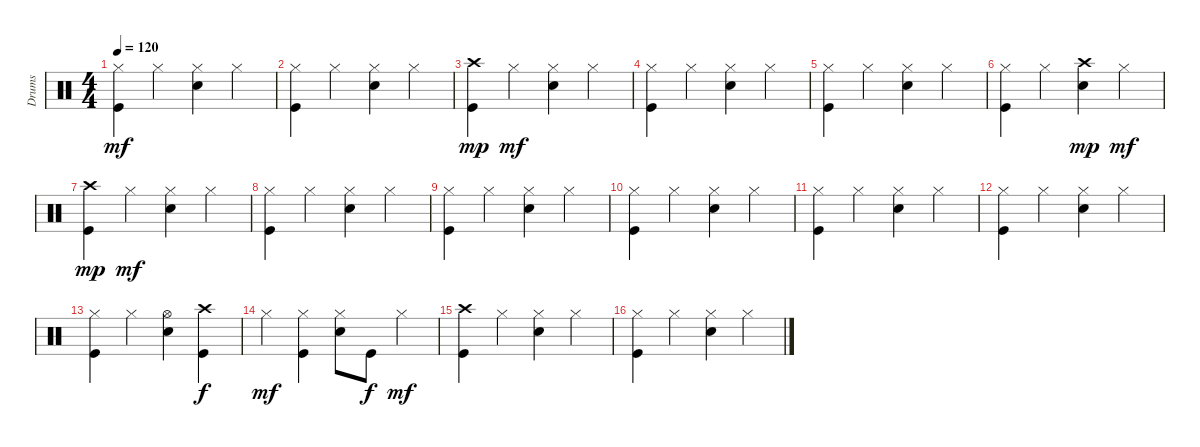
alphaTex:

\track ("Drums" "Drums") {instrument percussion}
\staff {score}
\articulation defaults
\ts (4 4)
\tempo 120
\clef neutral
\ks c
("Hi-Hat (closed)" "Kick (hit)").4{dy mf} "Hi-Hat (closed)".4 ("Hi-Hat (closed)" "Snare (hit) 2").4 "Hi-Hat (closed)".4 |
("Hi-Hat (closed)" "Kick (hit)").4 "Hi-Hat (closed)".4 ("Hi-Hat (closed)" "Snare (hit) 2").4 "Hi-Hat (closed)".4 |
("Crash high (hit)" "Kick (hit)").4{dy mp} "Hi-Hat (closed)".4{dy mf} ("Hi-Hat (closed)" "Snare (hit) 2").4 "Hi-Hat (closed)".4 |
("Hi-Hat (closed)" "Kick (hit)").4 "Hi-Hat (closed)".4 ("Hi-Hat (closed)" "Snare (hit) 2").4 "Hi-Hat (closed)".4 |
("Hi-Hat (closed)" "Kick (hit)").4 "Hi-Hat (closed)".4 ("Hi-Hat (closed)" "Snare (hit) 2").4 "Hi-Hat (closed)".4 |
("Hi-Hat (closed)" "Kick (hit)").4 "Hi-Hat (closed)".4 ("Crash high (hit)" "Snare (hit) 2").4{dy mp} "Hi-Hat (closed)".4{dy mf} |
("Crash high (hit)" "Kick (hit)").4{dy mp} "Hi-Hat (closed)".4{dy mf} ("Hi-Hat (closed)" "Snare (hit) 2").4 "Hi-Hat (closed)".4 |
("Hi-Hat (closed)" "Kick (hit)").4 "Hi-Hat (closed)".4 ("Hi-Hat (closed)" "Snare (hit) 2").4 "Hi-Hat (closed)".4 |
("Hi-Hat (closed)" "Kick (hit)").4 "Hi-Hat (closed)".4 ("Hi-Hat (closed)" "Snare (hit) 2").4 "Hi-Hat (closed)".4 |
("Hi-Hat (closed)" "Kick (hit)").4 "Hi-Hat (closed)".4 ("Hi-Hat (closed)" "Snare (hit) 2").4 "Hi-Hat (closed)".4 |
("Hi-Hat (closed)" "Kick (hit)").4 "Hi-Hat (closed)".4 ("Hi-Hat (closed)" "Snare (hit) 2").4 "Hi-Hat (closed)".4 |
("Hi-Hat (closed)" "Kick (hit)").4 "Hi-Hat (closed)".4 ("Hi-Hat (closed)" "Snare (hit) 2").4 "Hi-Hat (closed)".4 |
("Hi-Hat (closed)" "Kick (hit)").4 "Hi-Hat (closed)".4 ("Hi-Hat (open)" "Snare (hit) 2").4 ("Crash high (hit)" "Kick (hit)").4{dy f} |
"Hi-Hat (closed)".4{dy mf} ("Hi-Hat (closed)" "Kick (hit)").4 ("Hi-Hat (closed)" "Snare (hit) 2").8 "Kick (hit)".8{dy f} "Hi-Hat (closed)".4{dy mf} |
("Crash high (hit)" "Kick (hit)").4 "Hi-Hat (closed)".4 ("Hi-Hat (closed)" "Snare (hit) 2").4 "Hi-Hat (closed)".4 |
("Hi-Hat (closed)" "Kick (hit)").4 "Hi-Hat (closed)".4 ("Hi-Hat (closed)" "Snare (hit) 2").4 "Hi-Hat (closed)".4
